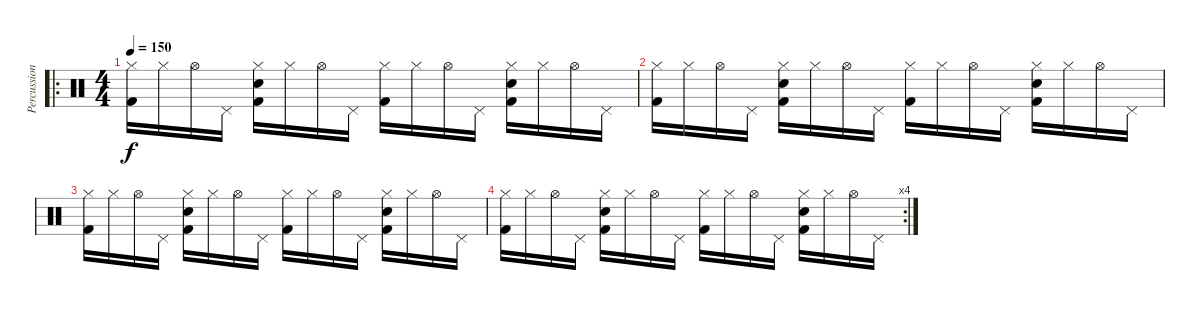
\track ("Percussion" "Percussion") {instrument percussion}
\staff {score}
\articulation defaults
\ro
\ts (4 4)
\tempo 150
\clef neutral
\ks c
("Hi-Hat (closed)" "Kick (hit) 2").16{dy f} "Hi-Hat (closed)".16 "Hi-Hat (open)".16 "Pedal Hi-Hat (hit)".16 ("Hi-Hat (closed)" "Snare (hit) 2" "Kick (hit) 2").16 "Hi-Hat (closed)".16 "Hi-Hat (open)".16 "Pedal Hi-Hat (hit)".16 ("Hi-Hat (closed)" "Kick (hit) 2").16 "Hi-Hat (closed)".16 "Hi-Hat (open)".16 "Pedal Hi-Hat (hit)".16 ("Hi-Hat (closed)" "Snare (hit) 2" "Kick (hit) 2").16 "Hi-Hat (closed)".16 "Hi-Hat (open)".16 "Pedal Hi-Hat (hit)".16 |
("Hi-Hat (closed)" "Kick (hit) 2").16 "Hi-Hat (closed)".16 "Hi-Hat (open)".16 "Pedal Hi-Hat (hit)".16 ("Hi-Hat (closed)" "Snare (hit) 2" "Kick (hit) 2").16 "Hi-Hat (closed)".16 "Hi-Hat (open)".16 "Pedal Hi-Hat (hit)".16 ("Hi-Hat (closed)" "Kick (hit) 2").16 "Hi-Hat (closed)".16 "Hi-Hat (open)".16 "Pedal Hi-Hat (hit)".16 ("Hi-Hat (closed)" "Snare (hit) 2" "Kick (hit) 2").16 "Hi-Hat (closed)".16 "Hi-Hat (open)".16 "Pedal Hi-Hat (hit)".16 |
("Hi-Hat (closed)" "Kick (hit) 2").16 "Hi-Hat (closed)".16 "Hi-Hat (open)".16 "Pedal Hi-Hat (hit)".16 ("Hi-Hat (closed)" "Snare (hit) 2" "Kick (hit) 2").16 "Hi-Hat (closed)".16 "Hi-Hat (open)".16 "Pedal Hi-Hat (hit)".16 ("Hi-Hat (closed)" "Kick (hit) 2").16 "Hi-Hat (closed)".16 "Hi-Hat (open)".16 "Pedal Hi-Hat (hit)".16 ("Hi-Hat (closed)" "Snare (hit) 2" "Kick (hit) 2").16 "Hi-Hat (closed)".16 "Hi-Hat (open)".16 "Pedal Hi-Hat (hit)".16 |
\rc 4
("Hi-Hat (closed)" "Kick (hit) 2").16 "Hi-Hat (closed)".16 "Hi-Hat (open)".16 "Pedal Hi-Hat (hit)".16 ("Hi-Hat (closed)" "Snare (hit) 2" "Kick (hit) 2").16 "Hi-Hat (closed)".16 "Hi-Hat (open)".16 "Pedal Hi-Hat (hit)".16 ("Hi-Hat (closed)" "Kick (hit) 2").16 "Hi-Hat (closed)".16 "Hi-Hat (open)".16 "Pedal Hi-Hat (hit)".16 ("Hi-Hat (closed)" "Snare (hit) 2" "Kick (hit) 2").16 "Hi-Hat (closed)".16 "Hi-Hat (open)".16 "Pedal Hi-Hat (hit)".16
